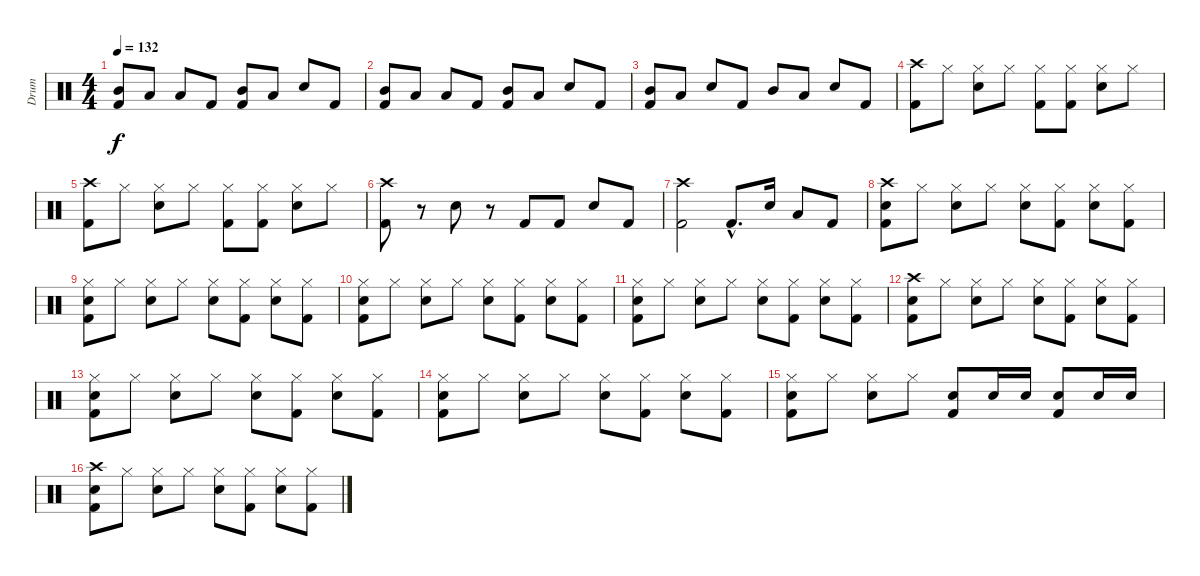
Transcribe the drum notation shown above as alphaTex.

\track ("Drum" "Drum") {instrument percussion}
\staff {score}
\articulation defaults
\ts (4 4)
\tempo 132
\clef neutral
\ks c
("Mid Tom (hit)" "Kick (hit) 2").8{dy f} "Low Tom (hit)".8 "Low Floor Tom (hit)".8 "Kick (hit) 2".8 ("Mid Tom (hit)" "Kick (hit) 2").8 "Low Tom (hit)".8 "Electric Snare (hit)".8 "Kick (hit) 2".8 |
("Mid Tom (hit)" "Kick (hit) 2").8 "Low Tom (hit)".8 "Low Floor Tom (hit)".8 "Kick (hit) 2".8 ("Mid Tom (hit)" "Kick (hit) 2").8 "Low Tom (hit)".8 "Electric Snare (hit)".8 "Kick (hit) 2".8 |
("Mid Tom (hit)" "Kick (hit) 2").8 "Low Tom (hit)".8 "Electric Snare (hit)".8 "Kick (hit) 2".8 "Mid Tom (hit)".8 "Low Tom (hit)".8 "Electric Snare (hit)".8 "Kick (hit) 2".8 |
("Crash high (hit)" "Kick (hit) 2").8 "Hi-Hat (closed)".8 ("Hi-Hat (closed)" "Electric Snare (hit)").8 "Hi-Hat (closed)".8 ("Hi-Hat (closed)" "Kick (hit) 2").8 ("Hi-Hat (closed)" "Kick (hit) 2").8 ("Hi-Hat (closed)" "Electric Snare (hit)").8 "Hi-Hat (closed)".8 |
("Crash high (hit)" "Kick (hit) 2").8 "Hi-Hat (closed)".8 ("Hi-Hat (closed)" "Electric Snare (hit)").8 "Hi-Hat (closed)".8 ("Hi-Hat (closed)" "Kick (hit) 2").8 ("Hi-Hat (closed)" "Kick (hit) 2").8 ("Hi-Hat (closed)" "Electric Snare (hit)").8 "Hi-Hat (closed)".8 |
("Crash high (hit)" "Kick (hit) 2").8 r.8 "Electric Snare (hit)".8 r.8 "Kick (hit) 2".8 "Kick (hit) 2".8 "Electric Snare (hit)".8 "Kick (hit) 2".8 |
("Crash high (hit)" "Kick (hit) 2").2 "Kick (hit) 2"{hac}.8{d} "Electric Snare (hit)".16 "Low Tom (hit)".8 "Kick (hit) 2".8 |
("Crash high (hit)" "Electric Snare (hit)" "Kick (hit) 2").8 "Hi-Hat (closed)".8 ("Hi-Hat (closed)" "Electric Snare (hit)").8 "Hi-Hat (closed)".8 ("Hi-Hat (closed)" "Electric Snare (hit)").8 ("Hi-Hat (closed)" "Kick (hit) 2").8 ("Hi-Hat (closed)" "Electric Snare (hit)").8 ("Hi-Hat (closed)" "Kick (hit) 2").8 |
("Hi-Hat (closed)" "Electric Snare (hit)" "Kick (hit) 2").8 "Hi-Hat (closed)".8 ("Hi-Hat (closed)" "Electric Snare (hit)").8 "Hi-Hat (closed)".8 ("Hi-Hat (closed)" "Electric Snare (hit)").8 ("Hi-Hat (closed)" "Kick (hit) 2").8 ("Hi-Hat (closed)" "Electric Snare (hit)").8 ("Hi-Hat (closed)" "Kick (hit) 2").8 |
("Hi-Hat (closed)" "Electric Snare (hit)" "Kick (hit) 2").8 "Hi-Hat (closed)".8 ("Hi-Hat (closed)" "Electric Snare (hit)").8 "Hi-Hat (closed)".8 ("Hi-Hat (closed)" "Electric Snare (hit)").8 ("Hi-Hat (closed)" "Kick (hit) 2").8 ("Hi-Hat (closed)" "Electric Snare (hit)").8 ("Hi-Hat (closed)" "Kick (hit) 2").8 |
("Hi-Hat (closed)" "Electric Snare (hit)" "Kick (hit) 2").8 "Hi-Hat (closed)".8 ("Hi-Hat (closed)" "Electric Snare (hit)").8 "Hi-Hat (closed)".8 ("Hi-Hat (closed)" "Electric Snare (hit)").8 ("Hi-Hat (closed)" "Kick (hit) 2").8 ("Hi-Hat (closed)" "Electric Snare (hit)").8 ("Hi-Hat (closed)" "Kick (hit) 2").8 |
("Crash high (hit)" "Electric Snare (hit)" "Kick (hit) 2").8 "Hi-Hat (closed)".8 ("Hi-Hat (closed)" "Electric Snare (hit)").8 "Hi-Hat (closed)".8 ("Hi-Hat (closed)" "Electric Snare (hit)").8 ("Hi-Hat (closed)" "Kick (hit) 2").8 ("Hi-Hat (closed)" "Electric Snare (hit)").8 ("Hi-Hat (closed)" "Kick (hit) 2").8 |
("Hi-Hat (closed)" "Electric Snare (hit)" "Kick (hit) 2").8 "Hi-Hat (closed)".8 ("Hi-Hat (closed)" "Electric Snare (hit)").8 "Hi-Hat (closed)".8 ("Hi-Hat (closed)" "Electric Snare (hit)").8 ("Hi-Hat (closed)" "Kick (hit) 2").8 ("Hi-Hat (closed)" "Electric Snare (hit)").8 ("Hi-Hat (closed)" "Kick (hit) 2").8 |
("Hi-Hat (closed)" "Electric Snare (hit)" "Kick (hit) 2").8 "Hi-Hat (closed)".8 ("Hi-Hat (closed)" "Electric Snare (hit)").8 "Hi-Hat (closed)".8 ("Hi-Hat (closed)" "Electric Snare (hit)").8 ("Hi-Hat (closed)" "Kick (hit) 2").8 ("Hi-Hat (closed)" "Electric Snare (hit)").8 ("Hi-Hat (closed)" "Kick (hit) 2").8 |
("Hi-Hat (closed)" "Electric Snare (hit)" "Kick (hit) 2").8 "Hi-Hat (closed)".8 ("Hi-Hat (closed)" "Electric Snare (hit)").8 "Hi-Hat (closed)".8 ("Electric Snare (hit)" "Kick (hit) 2").8 "Electric Snare (hit)".16 "Electric Snare (hit)".16 ("Electric Snare (hit)" "Kick (hit) 2").8 "Electric Snare (hit)".16 "Electric Snare (hit)".16 |
("Crash high (hit)" "Electric Snare (hit)" "Kick (hit) 2").8 "Hi-Hat (closed)".8 ("Hi-Hat (closed)" "Electric Snare (hit)").8 "Hi-Hat (closed)".8 ("Hi-Hat (closed)" "Electric Snare (hit)").8 ("Hi-Hat (closed)" "Kick (hit) 2").8 ("Hi-Hat (closed)" "Electric Snare (hit)").8 ("Hi-Hat (closed)" "Kick (hit) 2").8
